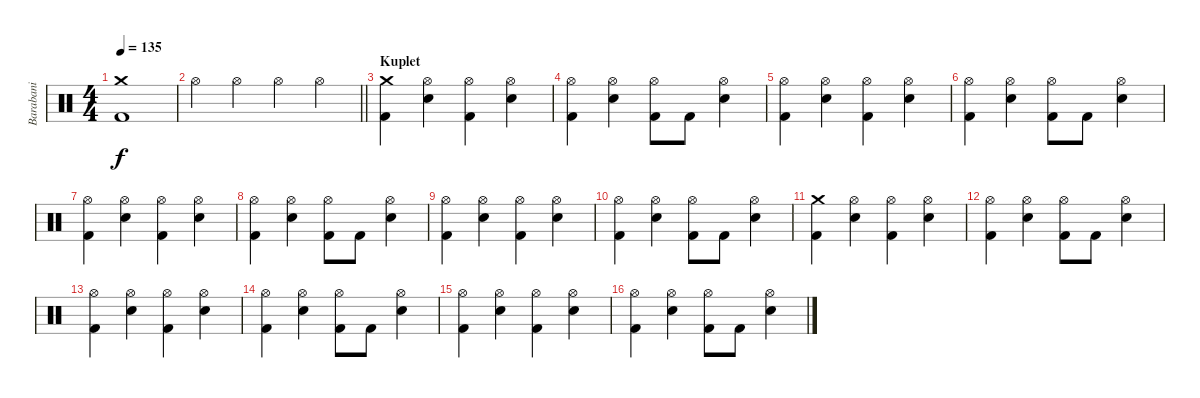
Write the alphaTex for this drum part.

\track ("Barabani" "Barabani") {instrument percussion}
\staff {score}
\articulation defaults
\ts (4 4)
\tempo 135
\clef neutral
\ks c
("Crash medium (hit)" "Kick (hit) 2").1{dy f} |
\barLineRight lightlight "Hi-Hat (open)".4 "Hi-Hat (open)".4 "Hi-Hat (open)".4 "Hi-Hat (open)".4
|
\section ("" "Kuplet")
("Crash medium (hit)" "Kick (hit) 2").4 ("Hi-Hat (open)" "Snare (hit) 2").4 ("Hi-Hat (open)" "Kick (hit) 2").4 ("Hi-Hat (open)" "Snare (hit) 2").4 |
("Hi-Hat (open)" "Kick (hit) 2").4 ("Hi-Hat (open)" "Snare (hit) 2").4 ("Hi-Hat (open)" "Kick (hit) 2").8 "Kick (hit) 2".8 ("Hi-Hat (open)" "Snare (hit) 2").4 |
("Hi-Hat (open)" "Kick (hit) 2").4 ("Hi-Hat (open)" "Snare (hit) 2").4 ("Hi-Hat (open)" "Kick (hit) 2").4 ("Hi-Hat (open)" "Snare (hit) 2").4 |
("Hi-Hat (open)" "Kick (hit) 2").4 ("Hi-Hat (open)" "Snare (hit) 2").4 ("Hi-Hat (open)" "Kick (hit) 2").8 "Kick (hit) 2".8 ("Hi-Hat (open)" "Snare (hit) 2").4 |
("Hi-Hat (open)" "Kick (hit) 2").4 ("Hi-Hat (open)" "Snare (hit) 2").4 ("Hi-Hat (open)" "Kick (hit) 2").4 ("Hi-Hat (open)" "Snare (hit) 2").4 |
("Hi-Hat (open)" "Kick (hit) 2").4 ("Hi-Hat (open)" "Snare (hit) 2").4 ("Hi-Hat (open)" "Kick (hit) 2").8 "Kick (hit) 2".8 ("Hi-Hat (open)" "Snare (hit) 2").4 |
("Hi-Hat (open)" "Kick (hit) 2").4 ("Hi-Hat (open)" "Snare (hit) 2").4 ("Hi-Hat (open)" "Kick (hit) 2").4 ("Hi-Hat (open)" "Snare (hit) 2").4 |
("Hi-Hat (open)" "Kick (hit) 2").4 ("Hi-Hat (open)" "Snare (hit) 2").4 ("Hi-Hat (open)" "Kick (hit) 2").8 "Kick (hit) 2".8 ("Hi-Hat (open)" "Snare (hit) 2").4 |
("Crash medium (hit)" "Kick (hit) 2").4 ("Hi-Hat (open)" "Snare (hit) 2").4 ("Hi-Hat (open)" "Kick (hit) 2").4 ("Hi-Hat (open)" "Snare (hit) 2").4 |
("Hi-Hat (open)" "Kick (hit) 2").4 ("Hi-Hat (open)" "Snare (hit) 2").4 ("Hi-Hat (open)" "Kick (hit) 2").8 "Kick (hit) 2".8 ("Hi-Hat (open)" "Snare (hit) 2").4 |
("Hi-Hat (open)" "Kick (hit) 2").4 ("Hi-Hat (open)" "Snare (hit) 2").4 ("Hi-Hat (open)" "Kick (hit) 2").4 ("Hi-Hat (open)" "Snare (hit) 2").4 |
("Hi-Hat (open)" "Kick (hit) 2").4 ("Hi-Hat (open)" "Snare (hit) 2").4 ("Hi-Hat (open)" "Kick (hit) 2").8 "Kick (hit) 2".8 ("Hi-Hat (open)" "Snare (hit) 2").4 |
("Hi-Hat (open)" "Kick (hit) 2").4 ("Hi-Hat (open)" "Snare (hit) 2").4 ("Hi-Hat (open)" "Kick (hit) 2").4 ("Hi-Hat (open)" "Snare (hit) 2").4 |
("Hi-Hat (open)" "Kick (hit) 2").4 ("Hi-Hat (open)" "Snare (hit) 2").4 ("Hi-Hat (open)" "Kick (hit) 2").8 "Kick (hit) 2".8 ("Hi-Hat (open)" "Snare (hit) 2").4
